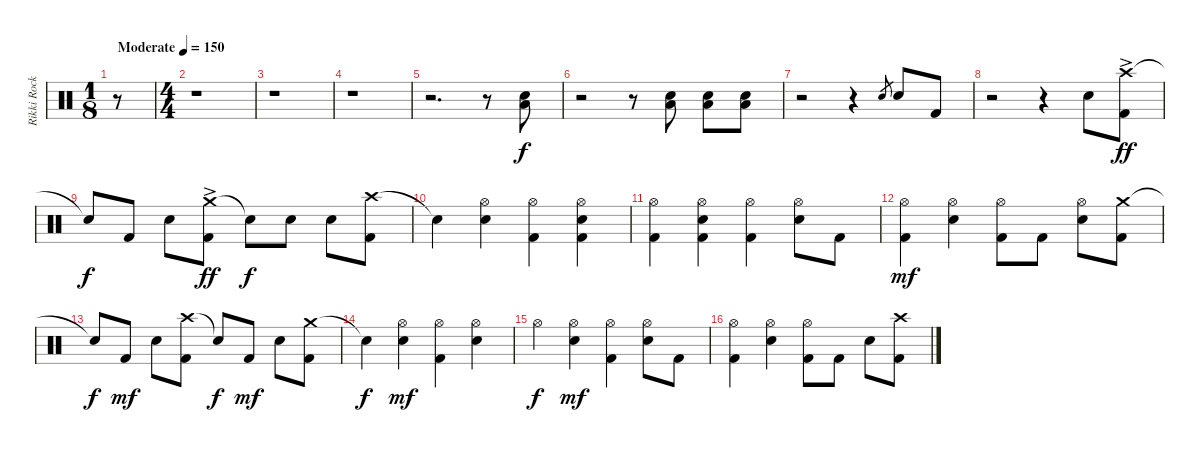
\track ("Rikki Rockett - Drums" "Rikki Rock") {instrument percussion}
\staff {score}
\articulation defaults
\ts (1 8)
\tempo (150 "Moderate")
\clef neutral
\ks c
r.8{dy f} |
\ts (4 4)
r.1 |
r.1 |
r.1 |
r.2{d} r.8 ("Low Floor Tom (hit)" "Electric Snare (hit)").8 |
r.2 r.8 ("Low Floor Tom (hit)" "Electric Snare (hit)").8 ("Low Floor Tom (hit)" "Electric Snare (hit)").8 ("Low Floor Tom (hit)" "Electric Snare (hit)").8 |
r.2 r.4 "Electric Snare (hit)".8{gr} "Electric Snare (hit)".8 "Kick (hit) 2".8 |
r.2 r.4 "Electric Snare (hit)".8 ("Crash high (hit)"{ac} "Kick (hit) 2").8{dy ff} |
"Snare (hit)"{t}.8{dy f} "Kick (hit) 2".8 "Electric Snare (hit)".8 ("Crash medium (hit)"{ac} "Kick (hit) 2").8{dy ff} "Snare (hit)"{t}.8{dy f} "Electric Snare (hit)".8 "Electric Snare (hit)".8 ("Crash high (hit)" "Kick (hit) 2").8 |
"Snare (hit)"{t}.4 ("Hi-Hat (open)" "Electric Snare (hit)").4 ("Hi-Hat (open)" "Kick (hit) 2").4 ("Hi-Hat (open)" "Electric Snare (hit)" "Kick (hit) 2").4 |
("Hi-Hat (open)" "Kick (hit) 2").4 ("Hi-Hat (open)" "Electric Snare (hit)" "Kick (hit) 2").4 ("Hi-Hat (open)" "Kick (hit) 2").4 ("Hi-Hat (open)" "Electric Snare (hit)").8 "Kick (hit) 2".8 |
("Hi-Hat (open)" "Kick (hit) 2").4{dy mf} ("Hi-Hat (open)" "Electric Snare (hit)").4 ("Hi-Hat (open)" "Kick (hit) 2").8 "Kick (hit) 2".8 ("Hi-Hat (open)" "Electric Snare (hit)").8 ("Crash medium (hit)" "Kick (hit) 2").8 |
"Snare (hit)"{t}.8{dy f} "Kick (hit) 2".8{dy mf} "Electric Snare (hit)".8 ("Crash high (hit)" "Kick (hit) 2").8 "Snare (hit)"{t}.8{dy f} "Kick (hit) 2".8{dy mf} "Electric Snare (hit)".8 ("Crash medium (hit)" "Kick (hit) 2").8 |
"Snare (hit)"{t}.4{dy f} ("Hi-Hat (open)" "Electric Snare (hit)").4{dy mf} ("Hi-Hat (open)" "Kick (hit) 2").4 ("Hi-Hat (open)" "Electric Snare (hit)").4 |
"Hi-Hat (open)".4{dy f} ("Hi-Hat (open)" "Electric Snare (hit)").4{dy mf} ("Hi-Hat (open)" "Kick (hit) 2").4 ("Hi-Hat (open)" "Electric Snare (hit)").8 "Kick (hit) 2".8 |
("Hi-Hat (open)" "Kick (hit) 2").4 ("Hi-Hat (open)" "Electric Snare (hit)").4 ("Hi-Hat (open)" "Kick (hit) 2").8 "Kick (hit) 2".8 "Electric Snare (hit)".8 ("Crash high (hit)" "Kick (hit) 2").8
